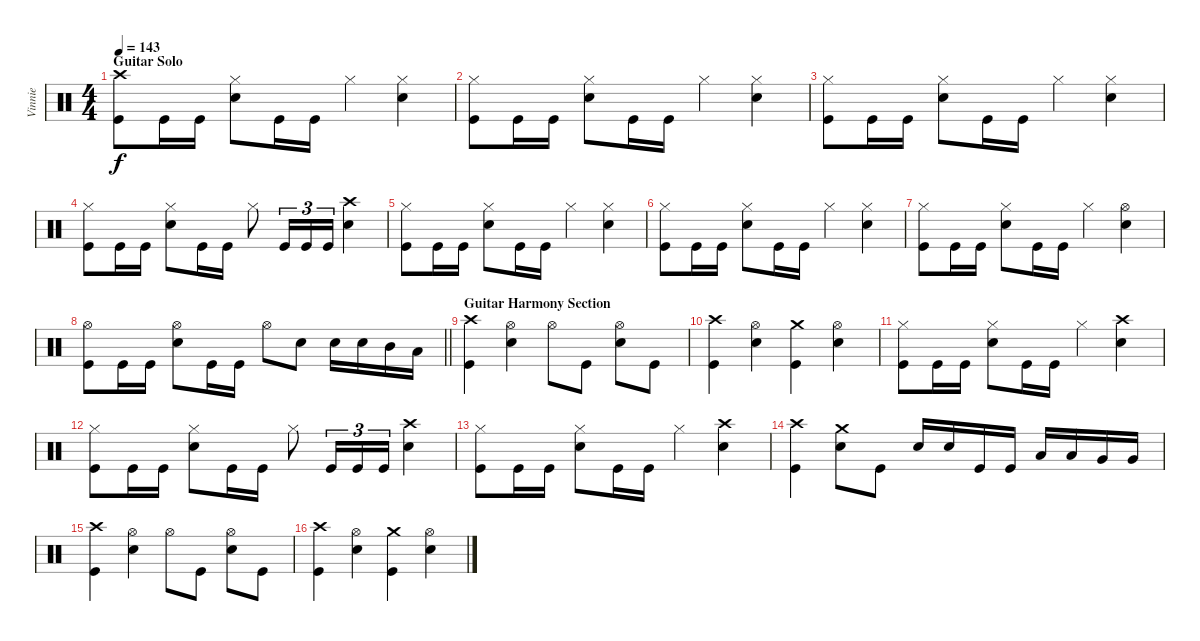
\track ("Vinnie" "Vinnie") {instrument percussion}
\staff {score}
\articulation defaults
\ts (4 4)
\section ("" "Guitar Solo")
\tempo 143
\clef neutral
\ks c
("Crash high (hit)" "Kick (hit)").8{dy f} "Kick (hit)".16 "Kick (hit)".16 ("Hi-Hat (closed)" "Electric Snare (hit)").8 "Kick (hit)".16 "Kick (hit)".16 "Hi-Hat (closed)".4 ("Hi-Hat (closed)" "Electric Snare (hit)").4 |
("Hi-Hat (closed)" "Kick (hit)").8 "Kick (hit)".16 "Kick (hit)".16 ("Hi-Hat (closed)" "Electric Snare (hit)").8 "Kick (hit)".16 "Kick (hit)".16 "Hi-Hat (closed)".4 ("Hi-Hat (closed)" "Electric Snare (hit)").4 |
("Hi-Hat (closed)" "Kick (hit)").8 "Kick (hit)".16 "Kick (hit)".16 ("Hi-Hat (closed)" "Electric Snare (hit)").8 "Kick (hit)".16 "Kick (hit)".16 "Hi-Hat (closed)".4 ("Hi-Hat (closed)" "Electric Snare (hit)").4 |
("Hi-Hat (closed)" "Kick (hit)").8 "Kick (hit)".16 "Kick (hit)".16 ("Hi-Hat (closed)" "Electric Snare (hit)").8 "Kick (hit)".16 "Kick (hit)".16 "Hi-Hat (closed)".8 "Kick (hit)".16{tu (3 2)} "Kick (hit)".16{tu (3 2)} "Kick (hit)".16{tu (3 2)} ("Crash high (hit)" "Electric Snare (hit)").4 |
("Hi-Hat (closed)" "Kick (hit)").8 "Kick (hit)".16 "Kick (hit)".16 ("Hi-Hat (closed)" "Electric Snare (hit)").8 "Kick (hit)".16 "Kick (hit)".16 "Hi-Hat (closed)".4 ("Hi-Hat (closed)" "Electric Snare (hit)").4 |
("Hi-Hat (closed)" "Kick (hit)").8 "Kick (hit)".16 "Kick (hit)".16 ("Hi-Hat (closed)" "Electric Snare (hit)").8 "Kick (hit)".16 "Kick (hit)".16 "Hi-Hat (closed)".4 ("Hi-Hat (closed)" "Electric Snare (hit)").4 |
("Hi-Hat (closed)" "Kick (hit)").8 "Kick (hit)".16 "Kick (hit)".16 ("Hi-Hat (closed)" "Electric Snare (hit)").8 "Kick (hit)".16 "Kick (hit)".16 "Hi-Hat (closed)".4 ("Hi-Hat (open)" "Electric Snare (hit)").4 |
\barLineRight lightlight
("Hi-Hat (open)" "Kick (hit)").8 "Kick (hit)".16 "Kick (hit)".16 ("Hi-Hat (open)" "Electric Snare (hit)").8 "Kick (hit)".16 "Kick (hit)".16 "Hi-Hat (open)".8 "Electric Snare (hit)".8 "Electric Snare (hit)".16 "Electric Snare (hit)".16 "Mid Tom (hit)".16 "Low Tom (hit)".16 |
\section ("" "Guitar Harmony Section")
("Crash high (hit)" "Kick (hit)").4 ("Hi-Hat (open)" "Electric Snare (hit)").4 "Hi-Hat (open)".8 "Kick (hit)".8 ("Hi-Hat (open)" "Electric Snare (hit)").8 "Kick (hit)".8 |
("Crash high (hit)" "Kick (hit)").4 ("Hi-Hat (open)" "Electric Snare (hit)").4 ("Crash medium (hit)" "Kick (hit)").4 ("Hi-Hat (open)" "Electric Snare (hit)").4 |
("Hi-Hat (closed)" "Kick (hit)").8 "Kick (hit)".16 "Kick (hit)".16 ("Hi-Hat (closed)" "Electric Snare (hit)").8 "Kick (hit)".16 "Kick (hit)".16 "Hi-Hat (closed)".4 ("Crash high (hit)" "Electric Snare (hit)").4 |
("Hi-Hat (closed)" "Kick (hit)").8 "Kick (hit)".16 "Kick (hit)".16 ("Hi-Hat (closed)" "Electric Snare (hit)").8 "Kick (hit)".16 "Kick (hit)".16 "Hi-Hat (closed)".8 "Kick (hit)".16{tu (3 2)} "Kick (hit)".16{tu (3 2)} "Kick (hit)".16{tu (3 2)} ("Crash high (hit)" "Electric Snare (hit)").4 |
("Hi-Hat (closed)" "Kick (hit)").8 "Kick (hit)".16 "Kick (hit)".16 ("Hi-Hat (closed)" "Electric Snare (hit)").8 "Kick (hit)".16 "Kick (hit)".16 "Hi-Hat (closed)".4 ("Crash high (hit)" "Electric Snare (hit)").4 |
("Crash high (hit)" "Kick (hit)").4 ("Crash medium (hit)" "Electric Snare (hit)").8 "Kick (hit)".8 "Electric Snare (hit)".16 "Electric Snare (hit)".16 "Kick (hit)".16 "Kick (hit)".16 "Low Tom (hit)".16 "Low Tom (hit)".16 "Very Low Tom (hit)".16 "Very Low Tom (hit)".16 |
("Crash high (hit)" "Kick (hit)").4 ("Hi-Hat (open)" "Electric Snare (hit)").4 "Hi-Hat (open)".8 "Kick (hit)".8 ("Hi-Hat (open)" "Electric Snare (hit)").8 "Kick (hit)".8 |
("Crash high (hit)" "Kick (hit)").4 ("Hi-Hat (open)" "Electric Snare (hit)").4 ("Crash medium (hit)" "Kick (hit)").4 ("Hi-Hat (open)" "Electric Snare (hit)").4
